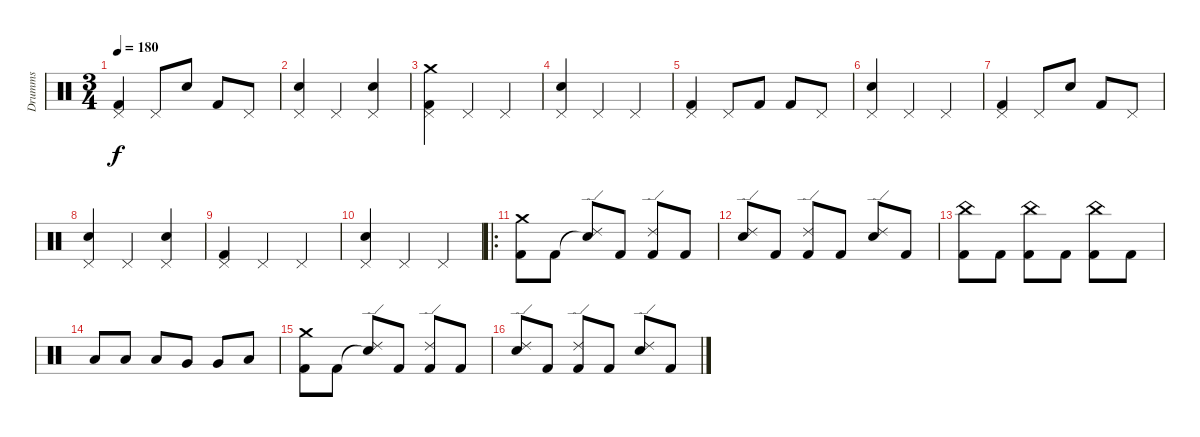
\track ("Drumms" "Drumms") {instrument percussion}
\staff {score}
\articulation defaults
\ts (3 4)
\tempo 180
\clef neutral
\ks c
("Pedal Hi-Hat (hit)" "Kick (hit) 2").4{dy f} "Pedal Hi-Hat (hit)".8 "Snare (hit) 2".8 "Kick (hit) 2".8 "Pedal Hi-Hat (hit)".8 |
("Pedal Hi-Hat (hit)" "Snare (hit) 2").4 "Pedal Hi-Hat (hit)".4 ("Pedal Hi-Hat (hit)" "Snare (hit) 2").4 |
("Pedal Hi-Hat (hit)" "Kick (hit) 2" "Crash medium (hit)").4 "Pedal Hi-Hat (hit)".4 "Pedal Hi-Hat (hit)".4 |
("Pedal Hi-Hat (hit)" "Snare (hit) 2").4 "Pedal Hi-Hat (hit)".4 "Pedal Hi-Hat (hit)".4 |
("Pedal Hi-Hat (hit)" "Kick (hit) 2").4 "Pedal Hi-Hat (hit)".8 "Kick (hit) 2".8 "Kick (hit) 2".8 "Pedal Hi-Hat (hit)".8 |
("Pedal Hi-Hat (hit)" "Snare (hit) 2").4 "Pedal Hi-Hat (hit)".4 "Pedal Hi-Hat (hit)".4 |
("Pedal Hi-Hat (hit)" "Kick (hit) 2").4 "Pedal Hi-Hat (hit)".8 "Snare (hit) 2".8 "Kick (hit) 2".8 "Pedal Hi-Hat (hit)".8 |
("Pedal Hi-Hat (hit)" "Snare (hit) 2").4 "Pedal Hi-Hat (hit)".4 ("Pedal Hi-Hat (hit)" "Snare (hit) 2").4 |
("Pedal Hi-Hat (hit)" "Kick (hit) 2").4 "Pedal Hi-Hat (hit)".4 "Pedal Hi-Hat (hit)".4 |
("Pedal Hi-Hat (hit)" "Snare (hit) 2").4 "Pedal Hi-Hat (hit)".4 "Pedal Hi-Hat (hit)".4 |
\ro
("Kick (hit) 2" "Crash medium (hit)").8 "Kick (hit) 2".8 ("Snare (hit)"{t} "Ride (edge) 2").8 "Kick (hit) 2".8 ("Kick (hit) 2" "Ride (edge) 2").8 "Kick (hit) 2".8 |
("Snare (hit) 2" "Ride (edge) 2").8 "Kick (hit) 2".8 ("Kick (hit) 2" "Ride (edge) 2").8 "Kick (hit) 2".8 ("Snare (hit) 2" "Ride (edge) 2").8 "Kick (hit) 2".8 |
("Kick (hit) 2" "China (hit)").8 "Kick (hit) 2".8 ("Kick (hit) 2" "China (hit)").8 "Kick (hit) 2".8 ("Kick (hit) 2" "China (hit)").8 "Kick (hit) 2".8 |
"Low Tom (hit)".8 "Low Tom (hit)".8 "Low Tom (hit)".8 "Very Low Tom (hit)".8 "Very Low Tom (hit)".8 "Low Floor Tom (hit)".8 |
("Kick (hit) 2" "Crash medium (hit)").8 "Kick (hit) 2".8 ("Snare (hit)"{t} "Ride (edge) 2").8 "Kick (hit) 2".8 ("Kick (hit) 2" "Ride (edge) 2").8 "Kick (hit) 2".8 |
("Snare (hit) 2" "Ride (edge) 2").8 "Kick (hit) 2".8 ("Kick (hit) 2" "Ride (edge) 2").8 "Kick (hit) 2".8 ("Snare (hit) 2" "Ride (edge) 2").8 "Kick (hit) 2".8
